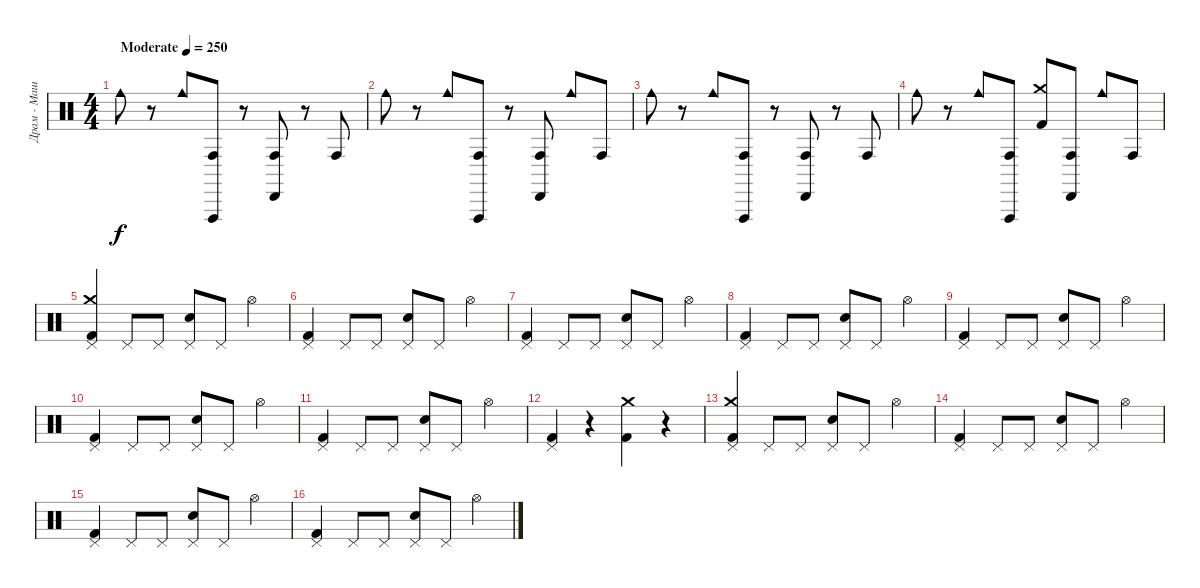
\track ("Драм - Машина" "Драм - Маш") {instrument percussion}
\staff {score}
\articulation defaults
\ts (4 4)
\tempo (250 "Moderate")
\clef neutral
\ks c "Cowbell medium (hit)".8{dy f}
r.8 "Cowbell medium (hit)".8 ("Conga high (hit)" "Vibraslap (hit)").8 r.8 ("Cabasa (hit)" "Conga high (hit)").8 r.8 "Conga high (hit)".8 |
"Cowbell medium (hit)".8 r.8 "Cowbell medium (hit)".8 ("Conga high (hit)" "Vibraslap (hit)").8 r.8 ("Cabasa (hit)" "Conga high (hit)").8 "Cowbell medium (hit)".8 "Conga high (hit)".8 |
"Cowbell medium (hit)".8 r.8 "Cowbell medium (hit)".8 ("Conga high (hit)" "Vibraslap (hit)").8 r.8 ("Cabasa (hit)" "Conga high (hit)").8 r.8 "Conga high (hit)".8 |
"Cowbell medium (hit)".8 r.8 "Cowbell medium (hit)".8 ("Conga high (hit)" "Vibraslap (hit)").8 ("Kick (hit) 2" "Crash medium (hit)").8 ("Cabasa (hit)" "Conga high (hit)").8 "Cowbell medium (hit)".8 "Conga high (hit)".8 |
("Crash medium (hit)" "Pedal Hi-Hat (hit)" "Kick (hit) 2").4 "Pedal Hi-Hat (hit)".8 "Pedal Hi-Hat (hit)".8 ("Pedal Hi-Hat (hit)" "Snare (hit) 2").8 "Pedal Hi-Hat (hit)".8 "Hi-Hat (open)".4 |
("Pedal Hi-Hat (hit)" "Kick (hit) 2").4 "Pedal Hi-Hat (hit)".8 "Pedal Hi-Hat (hit)".8 ("Pedal Hi-Hat (hit)" "Snare (hit) 2").8 "Pedal Hi-Hat (hit)".8 "Hi-Hat (open)".4 |
("Pedal Hi-Hat (hit)" "Kick (hit) 2").4 "Pedal Hi-Hat (hit)".8 "Pedal Hi-Hat (hit)".8 ("Pedal Hi-Hat (hit)" "Snare (hit) 2").8 "Pedal Hi-Hat (hit)".8 "Hi-Hat (open)".4 |
("Pedal Hi-Hat (hit)" "Kick (hit) 2").4 "Pedal Hi-Hat (hit)".8 "Pedal Hi-Hat (hit)".8 ("Pedal Hi-Hat (hit)" "Snare (hit) 2").8 "Pedal Hi-Hat (hit)".8 "Hi-Hat (open)".4 |
("Pedal Hi-Hat (hit)" "Kick (hit) 2").4 "Pedal Hi-Hat (hit)".8 "Pedal Hi-Hat (hit)".8 ("Pedal Hi-Hat (hit)" "Snare (hit) 2").8 "Pedal Hi-Hat (hit)".8 "Hi-Hat (open)".4 |
("Pedal Hi-Hat (hit)" "Kick (hit) 2").4 "Pedal Hi-Hat (hit)".8 "Pedal Hi-Hat (hit)".8 ("Pedal Hi-Hat (hit)" "Snare (hit) 2").8 "Pedal Hi-Hat (hit)".8 "Hi-Hat (open)".4 |
("Pedal Hi-Hat (hit)" "Kick (hit) 2").4 "Pedal Hi-Hat (hit)".8 "Pedal Hi-Hat (hit)".8 ("Pedal Hi-Hat (hit)" "Snare (hit) 2").8 "Pedal Hi-Hat (hit)".8 "Hi-Hat (open)".4 |
("Pedal Hi-Hat (hit)" "Kick (hit) 2").4 r.4 ("Crash medium (hit)" "Kick (hit) 2").4 r.4 |
("Crash medium (hit)" "Pedal Hi-Hat (hit)" "Kick (hit) 2").4 "Pedal Hi-Hat (hit)".8 "Pedal Hi-Hat (hit)".8 ("Pedal Hi-Hat (hit)" "Snare (hit) 2").8 "Pedal Hi-Hat (hit)".8 "Hi-Hat (open)".4 |
("Pedal Hi-Hat (hit)" "Kick (hit) 2").4 "Pedal Hi-Hat (hit)".8 "Pedal Hi-Hat (hit)".8 ("Pedal Hi-Hat (hit)" "Snare (hit) 2").8 "Pedal Hi-Hat (hit)".8 "Hi-Hat (open)".4 |
("Pedal Hi-Hat (hit)" "Kick (hit) 2").4 "Pedal Hi-Hat (hit)".8 "Pedal Hi-Hat (hit)".8 ("Pedal Hi-Hat (hit)" "Snare (hit) 2").8 "Pedal Hi-Hat (hit)".8 "Hi-Hat (open)".4 |
("Pedal Hi-Hat (hit)" "Kick (hit) 2").4 "Pedal Hi-Hat (hit)".8 "Pedal Hi-Hat (hit)".8 ("Pedal Hi-Hat (hit)" "Snare (hit) 2").8 "Pedal Hi-Hat (hit)".8 "Hi-Hat (open)".4
